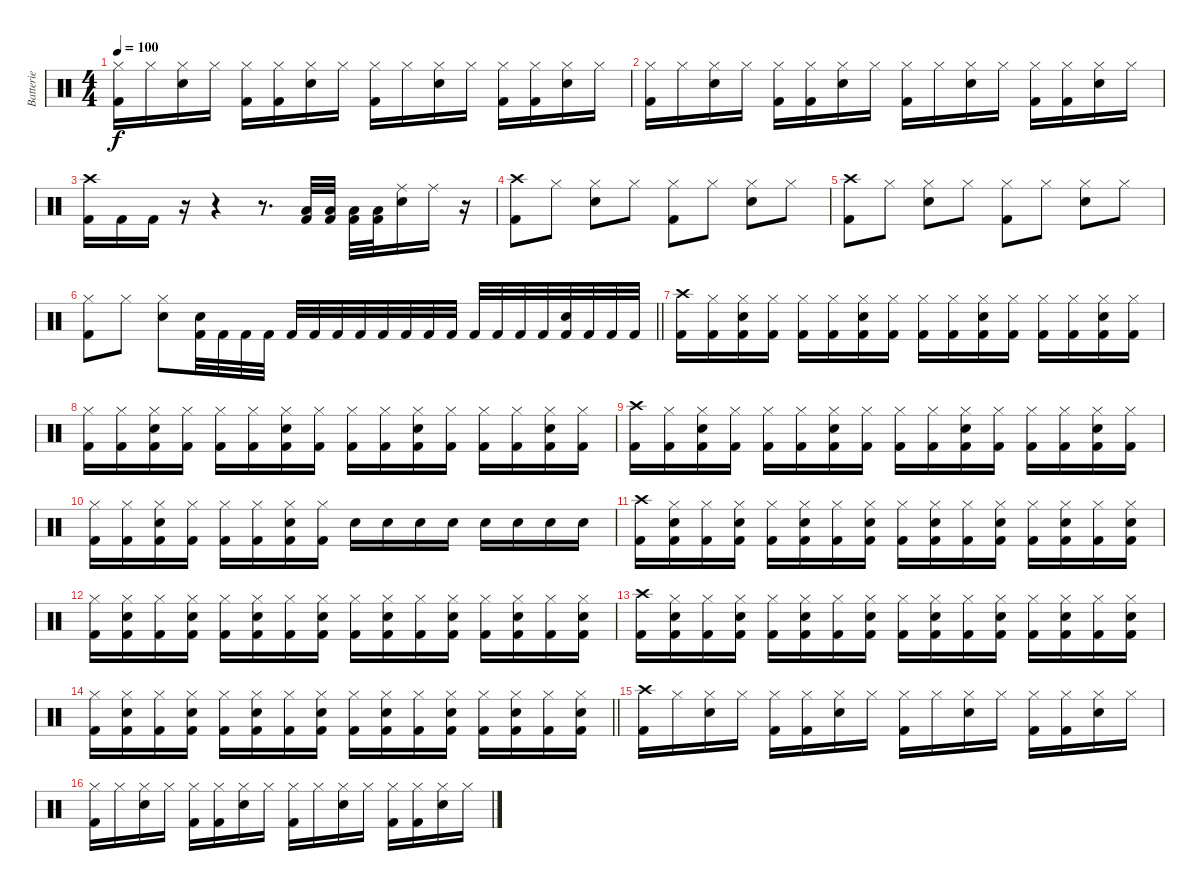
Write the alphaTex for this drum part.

\track ("Batterie" "Batterie") {instrument percussion}
\staff {score}
\articulation defaults
\ts (4 4)
\tempo 100
\clef neutral
\ks c
("Hi-Hat (closed)" "Kick (hit) 2").16{dy f} "Hi-Hat (closed)".16 ("Hi-Hat (closed)" "Snare (hit) 2").16 "Hi-Hat (closed)".16 ("Hi-Hat (closed)" "Kick (hit) 2").16 ("Hi-Hat (closed)" "Kick (hit) 2").16 ("Hi-Hat (closed)" "Snare (hit) 2").16 "Hi-Hat (closed)".16 ("Hi-Hat (closed)" "Kick (hit) 2").16 "Hi-Hat (closed)".16 ("Hi-Hat (closed)" "Snare (hit) 2").16 "Hi-Hat (closed)".16 ("Hi-Hat (closed)" "Kick (hit) 2").16 ("Hi-Hat (closed)" "Kick (hit) 2").16 ("Hi-Hat (closed)" "Snare (hit) 2").16 "Hi-Hat (closed)".16 |
("Hi-Hat (closed)" "Kick (hit) 2").16 "Hi-Hat (closed)".16 ("Hi-Hat (closed)" "Snare (hit) 2").16 "Hi-Hat (closed)".16 ("Hi-Hat (closed)" "Kick (hit) 2").16 ("Hi-Hat (closed)" "Kick (hit) 2").16 ("Hi-Hat (closed)" "Snare (hit) 2").16 "Hi-Hat (closed)".16 ("Hi-Hat (closed)" "Kick (hit) 2").16 "Hi-Hat (closed)".16 ("Hi-Hat (closed)" "Snare (hit) 2").16 "Hi-Hat (closed)".16 ("Hi-Hat (closed)" "Kick (hit) 2").16 ("Hi-Hat (closed)" "Kick (hit) 2").16 ("Hi-Hat (closed)" "Snare (hit) 2").16 "Hi-Hat (closed)".16 |
("Crash high (hit)" "Kick (hit) 2").16 "Kick (hit) 2".16 "Kick (hit) 2".16 r.16 r.4 r.8{d} ("Low Tom (hit)" "Kick (hit) 2").32 ("Low Tom (hit)" "Kick (hit) 2").32 ("Low Tom (hit)" "Kick (hit) 2").32 ("Low Tom (hit)" "Kick (hit) 2").32 ("Ride (middle)" "Snare (hit) 2").16 "Ride (middle)".16 r.16 |
("Crash high (hit)" "Kick (hit) 2").8 "Hi-Hat (closed)".8 ("Hi-Hat (closed)" "Snare (hit) 2").8 "Hi-Hat (closed)".8 ("Hi-Hat (closed)" "Kick (hit) 2").8 "Hi-Hat (closed)".8 ("Hi-Hat (closed)" "Snare (hit) 2").8 "Hi-Hat (closed)".8 |
("Crash high (hit)" "Kick (hit) 2").8 "Hi-Hat (closed)".8 ("Hi-Hat (closed)" "Snare (hit) 2").8 "Hi-Hat (closed)".8 ("Hi-Hat (closed)" "Kick (hit) 2").8 "Hi-Hat (closed)".8 ("Hi-Hat (closed)" "Snare (hit) 2").8 "Hi-Hat (closed)".8 |
\barLineRight lightlight
("Hi-Hat (closed)" "Kick (hit) 2").8 "Hi-Hat (closed)".8 ("Hi-Hat (closed)" "Snare (hit) 2").8 ("Snare (hit) 2" "Kick (hit) 2").32 "Kick (hit) 2".32 "Kick (hit) 2".32 "Kick (hit) 2".32 "Kick (hit) 2".32 "Kick (hit) 2".32 "Kick (hit) 2".32 "Kick (hit) 2".32 "Kick (hit) 2".32 "Kick (hit) 2".32 "Kick (hit) 2".32 "Kick (hit) 2".32 "Kick (hit) 2".32 "Kick (hit) 2".32 "Kick (hit) 2".32 "Kick (hit) 2".32 ("Snare (hit) 2" "Kick (hit) 2").32 "Kick (hit) 2".32 "Kick (hit) 2".32 "Kick (hit) 2".32 |
\section ("" "")
("Crash high (hit)" "Kick (hit) 2").16 ("Hi-Hat (closed)" "Kick (hit) 2").16 ("Hi-Hat (closed)" "Snare (hit) 2" "Kick (hit) 2").16 ("Hi-Hat (closed)" "Kick (hit) 2").16 ("Hi-Hat (closed)" "Kick (hit) 2").16 ("Hi-Hat (closed)" "Kick (hit) 2").16 ("Hi-Hat (closed)" "Snare (hit) 2" "Kick (hit) 2").16 ("Hi-Hat (closed)" "Kick (hit) 2").16 ("Hi-Hat (closed)" "Kick (hit) 2").16 ("Hi-Hat (closed)" "Kick (hit) 2").16 ("Hi-Hat (closed)" "Snare (hit) 2" "Kick (hit) 2").16 ("Hi-Hat (closed)" "Kick (hit) 2").16 ("Hi-Hat (closed)" "Kick (hit) 2").16 ("Hi-Hat (closed)" "Kick (hit) 2").16 ("Hi-Hat (closed)" "Snare (hit) 2" "Kick (hit) 2").16 ("Hi-Hat (closed)" "Kick (hit) 2").16 |
("Hi-Hat (closed)" "Kick (hit) 2").16 ("Hi-Hat (closed)" "Kick (hit) 2").16 ("Hi-Hat (closed)" "Snare (hit) 2" "Kick (hit) 2").16 ("Hi-Hat (closed)" "Kick (hit) 2").16 ("Hi-Hat (closed)" "Kick (hit) 2").16 ("Hi-Hat (closed)" "Kick (hit) 2").16 ("Hi-Hat (closed)" "Snare (hit) 2" "Kick (hit) 2").16 ("Hi-Hat (closed)" "Kick (hit) 2").16 ("Hi-Hat (closed)" "Kick (hit) 2").16 ("Hi-Hat (closed)" "Kick (hit) 2").16 ("Hi-Hat (closed)" "Snare (hit) 2" "Kick (hit) 2").16 ("Hi-Hat (closed)" "Kick (hit) 2").16 ("Hi-Hat (closed)" "Kick (hit) 2").16 ("Hi-Hat (closed)" "Kick (hit) 2").16 ("Hi-Hat (closed)" "Snare (hit) 2" "Kick (hit) 2").16 ("Hi-Hat (closed)" "Kick (hit) 2").16 |
("Crash high (hit)" "Kick (hit) 2").16 ("Hi-Hat (closed)" "Kick (hit) 2").16 ("Hi-Hat (closed)" "Snare (hit) 2" "Kick (hit) 2").16 ("Hi-Hat (closed)" "Kick (hit) 2").16 ("Hi-Hat (closed)" "Kick (hit) 2").16 ("Hi-Hat (closed)" "Kick (hit) 2").16 ("Hi-Hat (closed)" "Snare (hit) 2" "Kick (hit) 2").16 ("Hi-Hat (closed)" "Kick (hit) 2").16 ("Hi-Hat (closed)" "Kick (hit) 2").16 ("Hi-Hat (closed)" "Kick (hit) 2").16 ("Hi-Hat (closed)" "Snare (hit) 2" "Kick (hit) 2").16 ("Hi-Hat (closed)" "Kick (hit) 2").16 ("Hi-Hat (closed)" "Kick (hit) 2").16 ("Hi-Hat (closed)" "Kick (hit) 2").16 ("Hi-Hat (closed)" "Snare (hit) 2" "Kick (hit) 2").16 ("Hi-Hat (closed)" "Kick (hit) 2").16 |
("Hi-Hat (closed)" "Kick (hit) 2").16 ("Hi-Hat (closed)" "Kick (hit) 2").16 ("Hi-Hat (closed)" "Snare (hit) 2" "Kick (hit) 2").16 ("Hi-Hat (closed)" "Kick (hit) 2").16 ("Hi-Hat (closed)" "Kick (hit) 2").16 ("Hi-Hat (closed)" "Kick (hit) 2").16 ("Hi-Hat (closed)" "Snare (hit) 2" "Kick (hit) 2").16 ("Hi-Hat (closed)" "Kick (hit) 2").16 "Snare (hit) 2".16 "Snare (hit) 2".16 "Snare (hit) 2".16 "Snare (hit) 2".16 "Snare (hit) 2".16 "Snare (hit) 2".16 "Snare (hit) 2".16 "Snare (hit) 2".16 |
("Crash high (hit)" "Kick (hit) 2").16 ("Hi-Hat (closed)" "Snare (hit) 2" "Kick (hit) 2").16 ("Hi-Hat (closed)" "Kick (hit) 2").16 ("Hi-Hat (closed)" "Snare (hit) 2" "Kick (hit) 2").16 ("Hi-Hat (closed)" "Kick (hit) 2").16 ("Hi-Hat (closed)" "Snare (hit) 2" "Kick (hit) 2").16 ("Hi-Hat (closed)" "Kick (hit) 2").16 ("Hi-Hat (closed)" "Snare (hit) 2" "Kick (hit) 2").16 ("Hi-Hat (closed)" "Kick (hit) 2").16 ("Hi-Hat (closed)" "Snare (hit) 2" "Kick (hit) 2").16 ("Hi-Hat (closed)" "Kick (hit) 2").16 ("Hi-Hat (closed)" "Snare (hit) 2" "Kick (hit) 2").16 ("Hi-Hat (closed)" "Kick (hit) 2").16 ("Hi-Hat (closed)" "Snare (hit) 2" "Kick (hit) 2").16 ("Hi-Hat (closed)" "Kick (hit) 2").16 ("Hi-Hat (closed)" "Snare (hit) 2" "Kick (hit) 2").16 |
("Hi-Hat (closed)" "Kick (hit) 2").16 ("Hi-Hat (closed)" "Snare (hit) 2" "Kick (hit) 2").16 ("Hi-Hat (closed)" "Kick (hit) 2").16 ("Hi-Hat (closed)" "Snare (hit) 2" "Kick (hit) 2").16 ("Hi-Hat (closed)" "Kick (hit) 2").16 ("Hi-Hat (closed)" "Snare (hit) 2" "Kick (hit) 2").16 ("Hi-Hat (closed)" "Kick (hit) 2").16 ("Hi-Hat (closed)" "Snare (hit) 2" "Kick (hit) 2").16 ("Hi-Hat (closed)" "Kick (hit) 2").16 ("Hi-Hat (closed)" "Snare (hit) 2" "Kick (hit) 2").16 ("Hi-Hat (closed)" "Kick (hit) 2").16 ("Hi-Hat (closed)" "Snare (hit) 2" "Kick (hit) 2").16 ("Hi-Hat (closed)" "Kick (hit) 2").16 ("Hi-Hat (closed)" "Snare (hit) 2" "Kick (hit) 2").16 ("Hi-Hat (closed)" "Kick (hit) 2").16 ("Hi-Hat (closed)" "Snare (hit) 2" "Kick (hit) 2").16 |
("Crash high (hit)" "Kick (hit) 2").16 ("Hi-Hat (closed)" "Snare (hit) 2" "Kick (hit) 2").16 ("Hi-Hat (closed)" "Kick (hit) 2").16 ("Hi-Hat (closed)" "Snare (hit) 2" "Kick (hit) 2").16 ("Hi-Hat (closed)" "Kick (hit) 2").16 ("Hi-Hat (closed)" "Snare (hit) 2" "Kick (hit) 2").16 ("Hi-Hat (closed)" "Kick (hit) 2").16 ("Hi-Hat (closed)" "Snare (hit) 2" "Kick (hit) 2").16 ("Hi-Hat (closed)" "Kick (hit) 2").16 ("Hi-Hat (closed)" "Snare (hit) 2" "Kick (hit) 2").16 ("Hi-Hat (closed)" "Kick (hit) 2").16 ("Hi-Hat (closed)" "Snare (hit) 2" "Kick (hit) 2").16 ("Hi-Hat (closed)" "Kick (hit) 2").16 ("Hi-Hat (closed)" "Snare (hit) 2" "Kick (hit) 2").16 ("Hi-Hat (closed)" "Kick (hit) 2").16 ("Hi-Hat (closed)" "Snare (hit) 2" "Kick (hit) 2").16 |
\barLineRight lightlight
("Hi-Hat (closed)" "Kick (hit) 2").16 ("Hi-Hat (closed)" "Snare (hit) 2" "Kick (hit) 2").16 ("Hi-Hat (closed)" "Kick (hit) 2").16 ("Hi-Hat (closed)" "Snare (hit) 2" "Kick (hit) 2").16 ("Hi-Hat (closed)" "Kick (hit) 2").16 ("Hi-Hat (closed)" "Snare (hit) 2" "Kick (hit) 2").16 ("Hi-Hat (closed)" "Kick (hit) 2").16 ("Hi-Hat (closed)" "Snare (hit) 2" "Kick (hit) 2").16 ("Hi-Hat (closed)" "Kick (hit) 2").16 ("Hi-Hat (closed)" "Snare (hit) 2" "Kick (hit) 2").16 ("Hi-Hat (closed)" "Kick (hit) 2").16 ("Hi-Hat (closed)" "Snare (hit) 2" "Kick (hit) 2").16 ("Hi-Hat (closed)" "Kick (hit) 2").16 ("Hi-Hat (closed)" "Snare (hit) 2" "Kick (hit) 2").16 ("Hi-Hat (closed)" "Kick (hit) 2").16 ("Hi-Hat (closed)" "Snare (hit) 2" "Kick (hit) 2").16 |
\section ("" "")
("Crash high (hit)" "Kick (hit) 2").16 "Hi-Hat (closed)".16 ("Hi-Hat (closed)" "Snare (hit) 2").16 "Hi-Hat (closed)".16 ("Hi-Hat (closed)" "Kick (hit) 2").16 ("Hi-Hat (closed)" "Kick (hit) 2").16 ("Hi-Hat (closed)" "Snare (hit) 2").16 "Hi-Hat (closed)".16 ("Hi-Hat (closed)" "Kick (hit) 2").16 "Hi-Hat (closed)".16 ("Hi-Hat (closed)" "Snare (hit) 2").16 "Hi-Hat (closed)".16 ("Hi-Hat (closed)" "Kick (hit) 2").16 ("Hi-Hat (closed)" "Kick (hit) 2").16 ("Hi-Hat (closed)" "Snare (hit) 2").16 "Hi-Hat (closed)".16 |
("Hi-Hat (closed)" "Kick (hit) 2").16 "Hi-Hat (closed)".16 ("Hi-Hat (closed)" "Snare (hit) 2").16 "Hi-Hat (closed)".16 ("Hi-Hat (closed)" "Kick (hit) 2").16 ("Hi-Hat (closed)" "Kick (hit) 2").16 ("Hi-Hat (closed)" "Snare (hit) 2").16 "Hi-Hat (closed)".16 ("Hi-Hat (closed)" "Kick (hit) 2").16 "Hi-Hat (closed)".16 ("Hi-Hat (closed)" "Snare (hit) 2").16 "Hi-Hat (closed)".16 ("Hi-Hat (closed)" "Kick (hit) 2").16 ("Hi-Hat (closed)" "Kick (hit) 2").16 ("Hi-Hat (closed)" "Snare (hit) 2").16 "Hi-Hat (closed)".16
